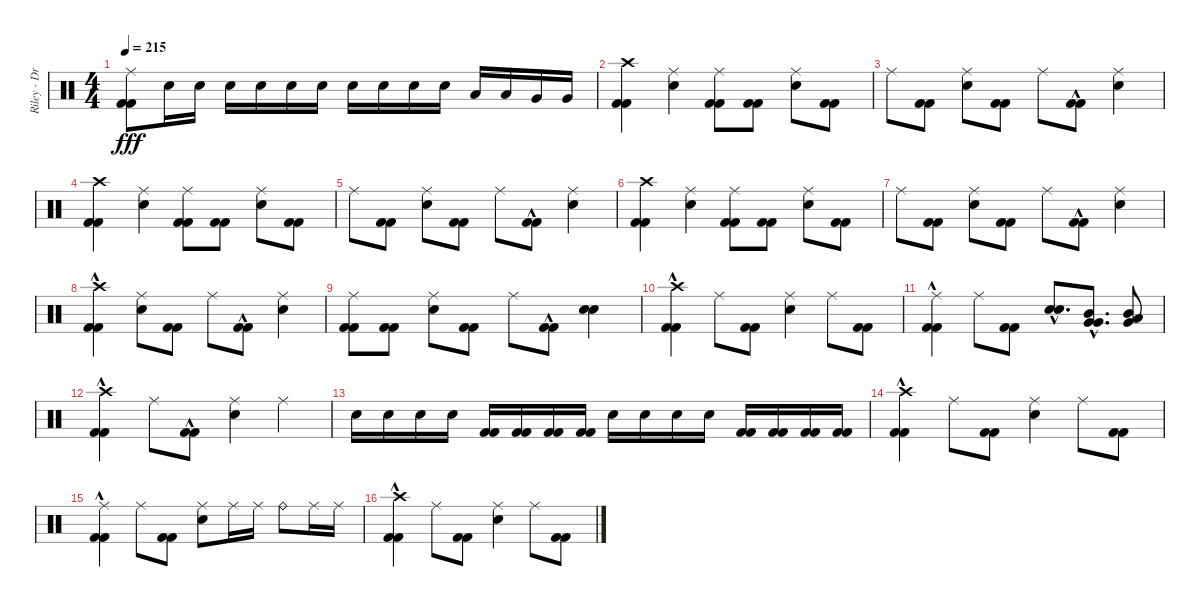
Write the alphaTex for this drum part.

\track ("Riley - Drums" "Riley - Dr") {instrument percussion}
\staff {score}
\articulation defaults
\ts (4 4)
\tempo 215
\clef neutral
\ks c
("Kick (hit) 2" "Kick (hit) 2" "Ride (middle)").8{dy fff} "Electric Snare (hit)".16 "Electric Snare (hit)".16 "Electric Snare (hit)".16 "Electric Snare (hit)".16 "Electric Snare (hit)".16 "Electric Snare (hit)".16 "Electric Snare (hit)".16 "Electric Snare (hit)".16 "Electric Snare (hit)".16 "Electric Snare (hit)".16 "Low Tom (hit)".16 "Low Tom (hit)".16 "Very Low Tom (hit)".16 "Very Low Tom (hit)".16 |
("Kick (hit) 2" "Kick (hit) 2" "Crash high (hit)").4 ("Electric Snare (hit)" "Ride (middle)").4 ("Kick (hit) 2" "Kick (hit) 2" "Ride (middle)").8 ("Kick (hit) 2" "Kick (hit) 2").8 ("Electric Snare (hit)" "Ride (middle)").8 ("Kick (hit) 2" "Kick (hit) 2").8 |
"Ride (middle)".8 ("Kick (hit) 2" "Kick (hit) 2").8 ("Electric Snare (hit)" "Ride (middle)").8 ("Kick (hit) 2" "Kick (hit) 2").8 "Ride (middle)".8 ("Kick (hit) 2"{hac} "Kick (hit) 2"{hac}).8 ("Electric Snare (hit)" "Ride (middle)").4 |
("Kick (hit) 2" "Kick (hit) 2" "Crash high (hit)").4 ("Electric Snare (hit)" "Ride (middle)").4 ("Kick (hit) 2" "Kick (hit) 2" "Ride (middle)").8 ("Kick (hit) 2" "Kick (hit) 2").8 ("Electric Snare (hit)" "Ride (middle)").8 ("Kick (hit) 2" "Kick (hit) 2").8 |
"Ride (middle)".8 ("Kick (hit) 2" "Kick (hit) 2").8 ("Electric Snare (hit)" "Ride (middle)").8 ("Kick (hit) 2" "Kick (hit) 2").8 "Ride (middle)".8 ("Kick (hit) 2"{hac} "Kick (hit) 2"{hac}).8 ("Electric Snare (hit)" "Ride (middle)").4 |
("Kick (hit) 2" "Kick (hit) 2" "Crash high (hit)").4 ("Electric Snare (hit)" "Ride (middle)").4 ("Kick (hit) 2" "Kick (hit) 2" "Ride (middle)").8 ("Kick (hit) 2" "Kick (hit) 2").8 ("Electric Snare (hit)" "Ride (middle)").8 ("Kick (hit) 2" "Kick (hit) 2").8 |
"Ride (middle)".8 ("Kick (hit) 2" "Kick (hit) 2").8 ("Electric Snare (hit)" "Ride (middle)").8 ("Kick (hit) 2" "Kick (hit) 2").8 "Ride (middle)".8 ("Kick (hit) 2"{hac} "Kick (hit) 2"{hac}).8 ("Electric Snare (hit)" "Ride (middle)").4 |
("Kick (hit) 2"{hac} "Kick (hit) 2"{hac} "Crash high (hit)").4 ("Electric Snare (hit)" "Ride (middle)").8 ("Kick (hit) 2" "Kick (hit) 2").8 "Ride (middle)".8 ("Kick (hit) 2"{hac} "Kick (hit) 2"{hac}).8 ("Electric Snare (hit)" "Ride (middle)").4 |
("Kick (hit) 2" "Kick (hit) 2" "Ride (middle)").8 ("Kick (hit) 2" "Kick (hit) 2").8 ("Electric Snare (hit)" "Ride (middle)").8 ("Kick (hit) 2" "Kick (hit) 2").8 "Ride (middle)".8 ("Kick (hit) 2"{hac} "Kick (hit) 2"{hac}).8 ("Electric Snare (hit)" "Electric Snare (hit)").4 |
("Kick (hit) 2"{hac} "Kick (hit) 2"{hac} "Crash high (hit)").4 "Ride (middle)".8 ("Kick (hit) 2" "Kick (hit) 2").8 ("Electric Snare (hit)" "Ride (middle)").4 "Ride (middle)".8 ("Kick (hit) 2" "Kick (hit) 2").8 |
("Kick (hit) 2"{hac} "Kick (hit) 2"{hac} "Ride (middle)").4 "Ride (middle)".8 ("Kick (hit) 2" "Kick (hit) 2").8 ("Electric Snare (hit)"{hac} "Electric Snare (hit)"{hac}).8{d} ("Very Low Tom (hit)"{hac} "Very Low Tom (hit)"{hac} "Mid Tom (hit)"{hac}).8{d} ("Low Floor Tom (hit)" "Very Low Tom (hit)" "Mid Tom (hit)").8 |
("Kick (hit) 2"{hac} "Kick (hit) 2"{hac} "Crash high (hit)").4 "Ride (middle)".8 ("Kick (hit) 2"{hac} "Kick (hit) 2"{hac}).8 ("Electric Snare (hit)" "Ride (middle)").4 "Ride (middle)".4 |
"Electric Snare (hit)".16 "Electric Snare (hit)".16 "Electric Snare (hit)".16 "Electric Snare (hit)".16 ("Kick (hit) 2" "Kick (hit) 2").16 ("Kick (hit) 2" "Kick (hit) 2").16 ("Kick (hit) 2" "Kick (hit) 2").16 ("Kick (hit) 2" "Kick (hit) 2").16 "Electric Snare (hit)".16 "Electric Snare (hit)".16 "Electric Snare (hit)".16 "Electric Snare (hit)".16 ("Kick (hit) 2" "Kick (hit) 2").16 ("Kick (hit) 2" "Kick (hit) 2").16 ("Kick (hit) 2" "Kick (hit) 2").16 ("Kick (hit) 2" "Kick (hit) 2").16 |
("Kick (hit) 2"{hac} "Kick (hit) 2"{hac} "Crash high (hit)").4 "Ride (middle)".8 ("Kick (hit) 2" "Kick (hit) 2").8 ("Electric Snare (hit)" "Ride (middle)").4 "Ride (middle)".8 ("Kick (hit) 2" "Kick (hit) 2").8 |
("Kick (hit) 2"{hac} "Kick (hit) 2"{hac} "Ride (middle)").4 "Ride (middle)".8 ("Kick (hit) 2" "Kick (hit) 2").8 ("Electric Snare (hit)" "Ride (middle)").8 "Ride (middle)".16 "Ride (middle)".16 "Ride (bell)".8 "Ride (middle)".16 "Ride (middle)".16 |
("Kick (hit) 2"{hac} "Kick (hit) 2"{hac} "Crash high (hit)").4 "Ride (middle)".8 ("Kick (hit) 2" "Kick (hit) 2").8 ("Electric Snare (hit)" "Ride (middle)").4 "Ride (middle)".8 ("Kick (hit) 2" "Kick (hit) 2").8
